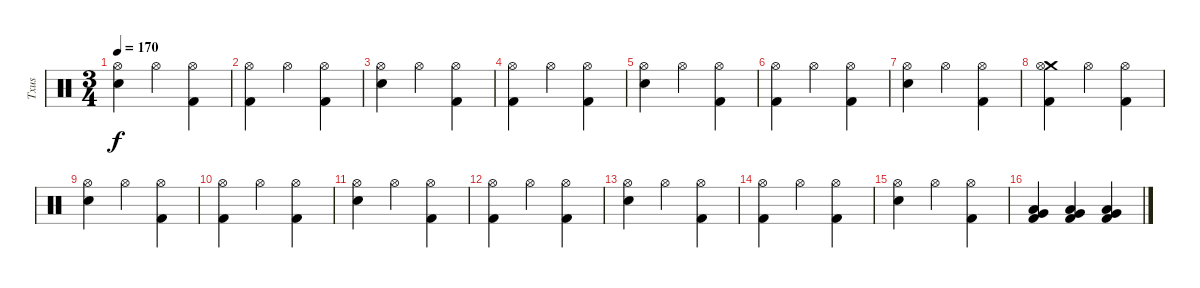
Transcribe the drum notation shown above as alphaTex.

\track ("Txus" "Txus") {instrument percussion}
\staff {score}
\articulation defaults
\ts (3 4)
\tempo 170
\clef neutral
\ks c
("Hi-Hat (open)" "Electric Snare (hit)").4{dy f} "Hi-Hat (open)".4 ("Hi-Hat (open)" "Kick (hit) 2").4 |
("Hi-Hat (open)" "Kick (hit) 2").4 "Hi-Hat (open)".4 ("Hi-Hat (open)" "Kick (hit) 2").4 |
("Hi-Hat (open)" "Electric Snare (hit)").4 "Hi-Hat (open)".4 ("Hi-Hat (open)" "Kick (hit) 2").4 |
("Hi-Hat (open)" "Kick (hit) 2").4 "Hi-Hat (open)".4 ("Hi-Hat (open)" "Kick (hit) 2").4 |
("Hi-Hat (open)" "Electric Snare (hit)").4 "Hi-Hat (open)".4 ("Hi-Hat (open)" "Kick (hit) 2").4 |
("Hi-Hat (open)" "Kick (hit) 2").4 "Hi-Hat (open)".4 ("Hi-Hat (open)" "Kick (hit) 2").4 |
("Hi-Hat (open)" "Electric Snare (hit)").4 "Hi-Hat (open)".4 ("Hi-Hat (open)" "Kick (hit) 2").4 |
("Crash medium (hit)" "Hi-Hat (open)" "Kick (hit) 2").4 "Hi-Hat (open)".4 ("Hi-Hat (open)" "Kick (hit) 2").4 |
("Hi-Hat (open)" "Electric Snare (hit)").4 "Hi-Hat (open)".4 ("Hi-Hat (open)" "Kick (hit) 2").4 |
("Hi-Hat (open)" "Kick (hit) 2").4 "Hi-Hat (open)".4 ("Hi-Hat (open)" "Kick (hit) 2").4 |
("Hi-Hat (open)" "Electric Snare (hit)").4 "Hi-Hat (open)".4 ("Hi-Hat (open)" "Kick (hit) 2").4 |
("Hi-Hat (open)" "Kick (hit) 2").4 "Hi-Hat (open)".4 ("Hi-Hat (open)" "Kick (hit) 2").4 |
("Hi-Hat (open)" "Electric Snare (hit)").4 "Hi-Hat (open)".4 ("Hi-Hat (open)" "Kick (hit) 2").4 |
("Hi-Hat (open)" "Kick (hit) 2").4 "Hi-Hat (open)".4 ("Hi-Hat (open)" "Kick (hit) 2").4 |
("Hi-Hat (open)" "Electric Snare (hit)").4 "Hi-Hat (open)".4 ("Hi-Hat (open)" "Kick (hit) 2").4 |
("Very Low Tom (hit)" "Low Floor Tom (hit)" "Kick (hit) 2").4 ("Very Low Tom (hit)" "Low Floor Tom (hit)" "Kick (hit) 2").4 ("Very Low Tom (hit)" "Low Floor Tom (hit)" "Kick (hit) 2").4
